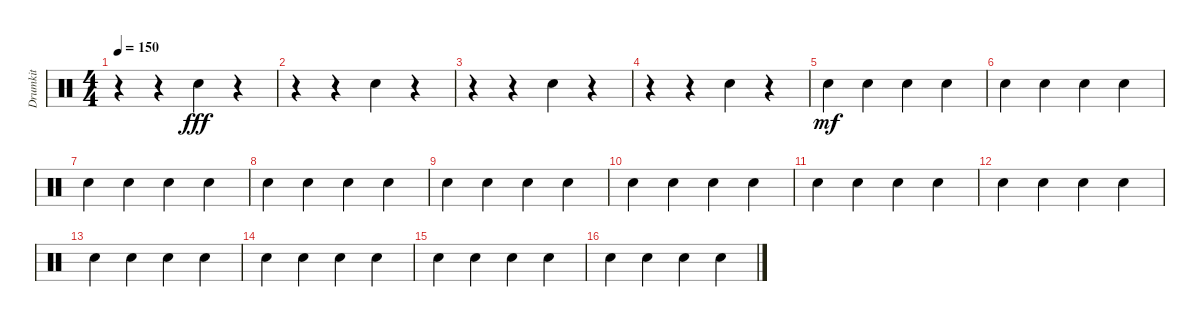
\track ("Drumkit" "Drumkit") {instrument percussion}
\staff {score}
\articulation defaults
\ts (4 4)
\tempo 150
\clef neutral
\ks c
r.4{dy fff} r.4 "Snare (hit) 2".4 r.4 |
r.4 r.4 "Snare (hit) 2".4 r.4 |
r.4 r.4 "Snare (hit) 2".4 r.4 |
r.4 r.4 "Snare (hit) 2".4 r.4 |
"Snare (hit) 2".4{dy mf} "Snare (hit) 2".4 "Snare (hit) 2".4 "Snare (hit) 2".4 |
"Snare (hit) 2".4 "Snare (hit) 2".4 "Snare (hit) 2".4 "Snare (hit) 2".4 |
"Snare (hit) 2".4 "Snare (hit) 2".4 "Snare (hit) 2".4 "Snare (hit) 2".4 |
"Snare (hit) 2".4 "Snare (hit) 2".4 "Snare (hit) 2".4 "Snare (hit) 2".4 |
"Snare (hit) 2".4 "Snare (hit) 2".4 "Snare (hit) 2".4 "Snare (hit) 2".4 |
"Snare (hit) 2".4 "Snare (hit) 2".4 "Snare (hit) 2".4 "Snare (hit) 2".4 |
"Snare (hit) 2".4 "Snare (hit) 2".4 "Snare (hit) 2".4 "Snare (hit) 2".4 |
"Snare (hit) 2".4 "Snare (hit) 2".4 "Snare (hit) 2".4 "Snare (hit) 2".4 |
"Snare (hit) 2".4 "Snare (hit) 2".4 "Snare (hit) 2".4 "Snare (hit) 2".4 |
"Snare (hit) 2".4 "Snare (hit) 2".4 "Snare (hit) 2".4 "Snare (hit) 2".4 |
"Snare (hit) 2".4 "Snare (hit) 2".4 "Snare (hit) 2".4 "Snare (hit) 2".4 |
"Snare (hit) 2".4 "Snare (hit) 2".4 "Snare (hit) 2".4 "Snare (hit) 2".4
